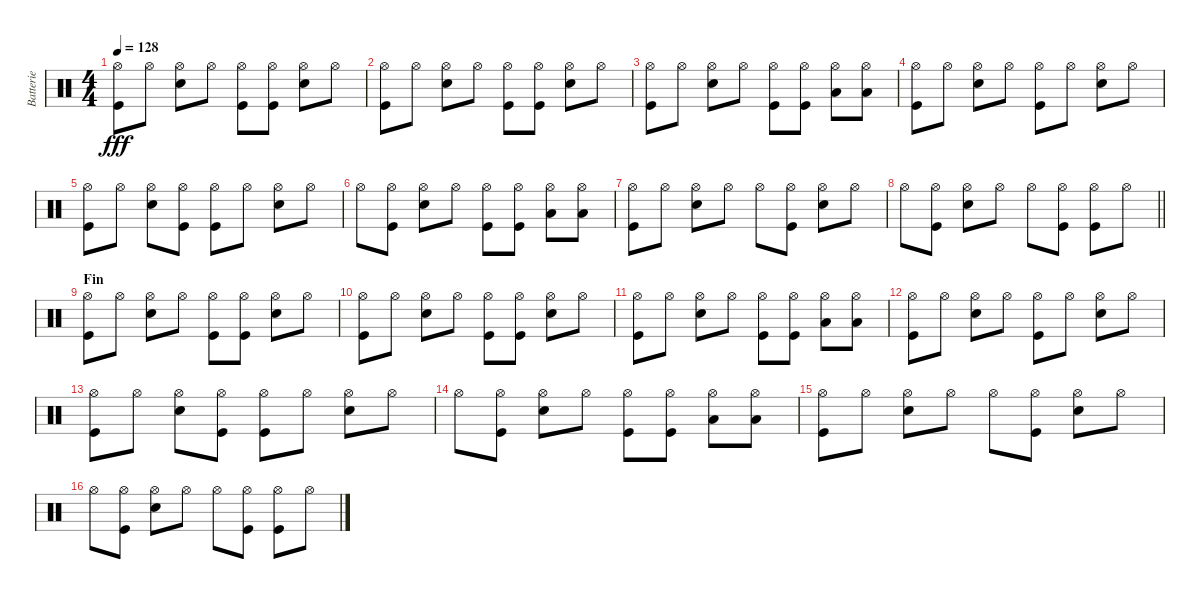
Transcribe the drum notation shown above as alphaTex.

\track ("Batterie" "Batterie") {instrument percussion}
\staff {score}
\articulation defaults
\ts (4 4)
\tempo 128
\clef neutral
\ks c
("Hi-Hat (open)" "Kick (hit)").8{dy fff} "Hi-Hat (open)".8 ("Hi-Hat (open)" "Electric Snare (hit)").8 "Hi-Hat (open)".8 ("Hi-Hat (open)" "Kick (hit)").8 ("Hi-Hat (open)" "Kick (hit)").8 ("Hi-Hat (open)" "Electric Snare (hit)").8 "Hi-Hat (open)".8 |
("Hi-Hat (open)" "Kick (hit)").8 "Hi-Hat (open)".8 ("Hi-Hat (open)" "Electric Snare (hit)").8 "Hi-Hat (open)".8 ("Hi-Hat (open)" "Kick (hit)").8 ("Hi-Hat (open)" "Kick (hit)").8 ("Hi-Hat (open)" "Electric Snare (hit)").8 "Hi-Hat (open)".8 |
("Hi-Hat (open)" "Kick (hit)").8 "Hi-Hat (open)".8 ("Hi-Hat (open)" "Electric Snare (hit)").8 "Hi-Hat (open)".8 ("Hi-Hat (open)" "Kick (hit)").8 ("Hi-Hat (open)" "Kick (hit)").8 ("Hi-Hat (open)" "Low Tom (hit)").8 ("Hi-Hat (open)" "Low Tom (hit)").8 |
("Hi-Hat (open)" "Kick (hit)").8 "Hi-Hat (open)".8 ("Hi-Hat (open)" "Electric Snare (hit)").8 "Hi-Hat (open)".8 ("Hi-Hat (open)" "Kick (hit)").8 "Hi-Hat (open)".8 ("Hi-Hat (open)" "Electric Snare (hit)").8 "Hi-Hat (open)".8 |
("Hi-Hat (open)" "Kick (hit)").8 "Hi-Hat (open)".8 ("Hi-Hat (open)" "Electric Snare (hit)").8 ("Hi-Hat (open)" "Kick (hit)").8 ("Hi-Hat (open)" "Kick (hit)").8 "Hi-Hat (open)".8 ("Hi-Hat (open)" "Electric Snare (hit)").8 "Hi-Hat (open)".8 |
"Hi-Hat (open)".8 ("Hi-Hat (open)" "Kick (hit)").8 ("Hi-Hat (open)" "Electric Snare (hit)").8 "Hi-Hat (open)".8 ("Hi-Hat (open)" "Kick (hit)").8 ("Hi-Hat (open)" "Kick (hit)").8 ("Hi-Hat (open)" "Low Tom (hit)").8 ("Hi-Hat (open)" "Low Tom (hit)").8 |
("Hi-Hat (open)" "Kick (hit)").8 "Hi-Hat (open)".8 ("Hi-Hat (open)" "Electric Snare (hit)").8 "Hi-Hat (open)".8 "Hi-Hat (open)".8 ("Hi-Hat (open)" "Kick (hit)").8 ("Hi-Hat (open)" "Electric Snare (hit)").8 "Hi-Hat (open)".8 |
\barLineRight lightlight "Hi-Hat (open)".8
("Hi-Hat (open)" "Kick (hit)").8 ("Hi-Hat (open)" "Electric Snare (hit)").8 "Hi-Hat (open)".8 "Hi-Hat (open)".8 ("Hi-Hat (open)" "Kick (hit)").8 ("Hi-Hat (open)" "Kick (hit)").8 "Hi-Hat (open)".8 |
\section ("" "Fin")
("Hi-Hat (open)" "Kick (hit)").8 "Hi-Hat (open)".8 ("Hi-Hat (open)" "Electric Snare (hit)").8 "Hi-Hat (open)".8 ("Hi-Hat (open)" "Kick (hit)").8 ("Hi-Hat (open)" "Kick (hit)").8 ("Hi-Hat (open)" "Electric Snare (hit)").8 "Hi-Hat (open)".8 |
("Hi-Hat (open)" "Kick (hit)").8 "Hi-Hat (open)".8 ("Hi-Hat (open)" "Electric Snare (hit)").8 "Hi-Hat (open)".8 ("Hi-Hat (open)" "Kick (hit)").8 ("Hi-Hat (open)" "Kick (hit)").8 ("Hi-Hat (open)" "Electric Snare (hit)").8 "Hi-Hat (open)".8 |
("Hi-Hat (open)" "Kick (hit)").8 "Hi-Hat (open)".8 ("Hi-Hat (open)" "Electric Snare (hit)").8 "Hi-Hat (open)".8 ("Hi-Hat (open)" "Kick (hit)").8 ("Hi-Hat (open)" "Kick (hit)").8 ("Hi-Hat (open)" "Low Tom (hit)").8 ("Hi-Hat (open)" "Low Tom (hit)").8 |
("Hi-Hat (open)" "Kick (hit)").8 "Hi-Hat (open)".8 ("Hi-Hat (open)" "Electric Snare (hit)").8 "Hi-Hat (open)".8 ("Hi-Hat (open)" "Kick (hit)").8 "Hi-Hat (open)".8 ("Hi-Hat (open)" "Electric Snare (hit)").8 "Hi-Hat (open)".8 |
("Hi-Hat (open)" "Kick (hit)").8 "Hi-Hat (open)".8 ("Hi-Hat (open)" "Electric Snare (hit)").8 ("Hi-Hat (open)" "Kick (hit)").8 ("Hi-Hat (open)" "Kick (hit)").8 "Hi-Hat (open)".8 ("Hi-Hat (open)" "Electric Snare (hit)").8 "Hi-Hat (open)".8 |
"Hi-Hat (open)".8 ("Hi-Hat (open)" "Kick (hit)").8 ("Hi-Hat (open)" "Electric Snare (hit)").8 "Hi-Hat (open)".8 ("Hi-Hat (open)" "Kick (hit)").8 ("Hi-Hat (open)" "Kick (hit)").8 ("Hi-Hat (open)" "Low Tom (hit)").8 ("Hi-Hat (open)" "Low Tom (hit)").8 |
("Hi-Hat (open)" "Kick (hit)").8 "Hi-Hat (open)".8 ("Hi-Hat (open)" "Electric Snare (hit)").8 "Hi-Hat (open)".8 "Hi-Hat (open)".8 ("Hi-Hat (open)" "Kick (hit)").8 ("Hi-Hat (open)" "Electric Snare (hit)").8 "Hi-Hat (open)".8 |
"Hi-Hat (open)".8 ("Hi-Hat (open)" "Kick (hit)").8 ("Hi-Hat (open)" "Electric Snare (hit)").8 "Hi-Hat (open)".8 "Hi-Hat (open)".8 ("Hi-Hat (open)" "Kick (hit)").8 ("Hi-Hat (open)" "Kick (hit)").8 "Hi-Hat (open)".8
